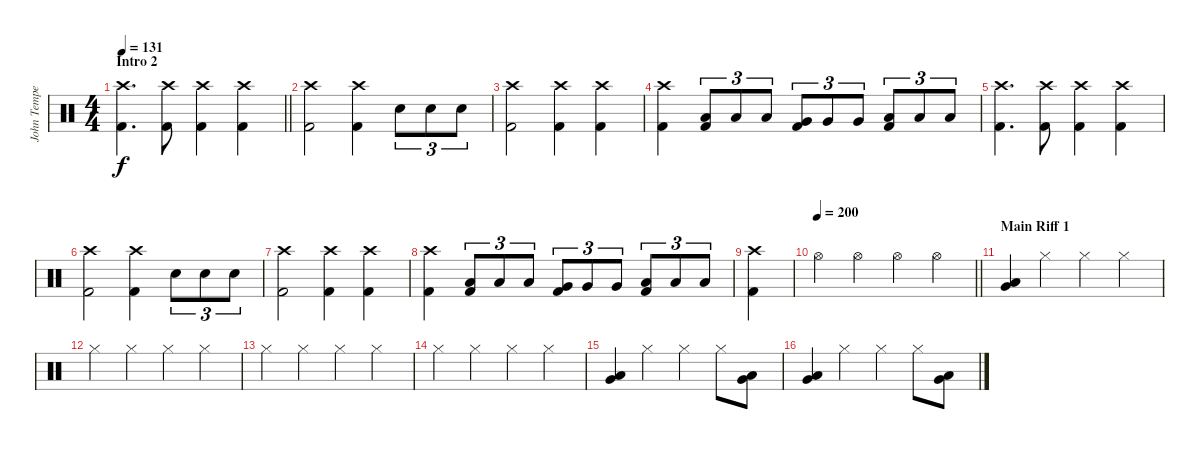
\track ("John Tempesta" "John Tempe") {instrument percussion}
\staff {score}
\articulation defaults
\ts (4 4)
\section ("" "Intro 2")
\tempo 131
\clef neutral
\barLineRight lightlight
\ks c
("Crash high (hit)" "Kick (hit) 2").4{d dy f} ("Crash high (hit)" "Kick (hit) 2").8 ("Crash high (hit)" "Kick (hit) 2").4 ("Crash high (hit)" "Kick (hit) 2").4 |
("Crash high (hit)" "Kick (hit) 2").2 ("Crash high (hit)" "Kick (hit) 2").4 "Electric Snare (hit)".8{tu (3 2)} "Electric Snare (hit)".8{tu (3 2)} "Electric Snare (hit)".8{tu (3 2)} |
("Crash high (hit)" "Kick (hit) 2").2 ("Crash high (hit)" "Kick (hit) 2").4 ("Crash high (hit)" "Kick (hit) 2").4 |
("Crash high (hit)" "Kick (hit) 2").4 ("Low Tom (hit)" "Kick (hit) 2").8{tu (3 2)} "Low Tom (hit)".8{tu (3 2)} "Low Tom (hit)".8{tu (3 2)} ("Very Low Tom (hit)" "Kick (hit) 2").8{tu (3 2)} "Very Low Tom (hit)".8{tu (3 2)} "Very Low Tom (hit)".8{tu (3 2)} ("Low Floor Tom (hit)" "Kick (hit) 2").8{tu (3 2)} "Low Floor Tom (hit)".8{tu (3 2)} "Low Floor Tom (hit)".8{tu (3 2)} |
("Crash high (hit)" "Kick (hit) 2").4{d} ("Crash high (hit)" "Kick (hit) 2").8 ("Crash high (hit)" "Kick (hit) 2").4 ("Crash high (hit)" "Kick (hit) 2").4 |
("Crash high (hit)" "Kick (hit) 2").2 ("Crash high (hit)" "Kick (hit) 2").4 "Electric Snare (hit)".8{tu (3 2)} "Electric Snare (hit)".8{tu (3 2)} "Electric Snare (hit)".8{tu (3 2)} |
("Crash high (hit)" "Kick (hit) 2").2 ("Crash high (hit)" "Kick (hit) 2").4 ("Crash high (hit)" "Kick (hit) 2").4 |
("Crash high (hit)" "Kick (hit) 2").4 ("Low Tom (hit)" "Kick (hit) 2").8{tu (3 2)} "Low Tom (hit)".8{tu (3 2)} "Low Tom (hit)".8{tu (3 2)} ("Very Low Tom (hit)" "Kick (hit) 2").8{tu (3 2)} "Very Low Tom (hit)".8{tu (3 2)} "Very Low Tom (hit)".8{tu (3 2)} ("Low Floor Tom (hit)" "Kick (hit) 2").8{tu (3 2)} "Low Floor Tom (hit)".8{tu (3 2)} "Low Floor Tom (hit)".8{tu (3 2)} |
("Crash high (hit)" "Kick (hit) 2").4 |
\tempo 200
\barLineRight lightlight "Hi-Hat (open)".4 "Hi-Hat (open)".4 "Hi-Hat (open)".4 "Hi-Hat (open)".4
|
\section ("" "Main Riff 1")
("Low Floor Tom (hit)" "Very Low Tom (hit)").4 "Hi-Hat (closed)".4 "Hi-Hat (closed)".4 "Hi-Hat (closed)".4 |
"Hi-Hat (closed)".4 "Hi-Hat (closed)".4 "Hi-Hat (closed)".4 "Hi-Hat (closed)".4 |
"Hi-Hat (closed)".4 "Hi-Hat (closed)".4 "Hi-Hat (closed)".4 "Hi-Hat (closed)".4 |
"Hi-Hat (closed)".4 "Hi-Hat (closed)".4 "Hi-Hat (closed)".4 "Hi-Hat (closed)".4 |
("Low Floor Tom (hit)" "Very Low Tom (hit)").4 "Hi-Hat (closed)".4 "Hi-Hat (closed)".4 "Hi-Hat (closed)".8 ("Low Floor Tom (hit)" "Very Low Tom (hit)").8 |
("Low Floor Tom (hit)" "Very Low Tom (hit)").4 "Hi-Hat (closed)".4 "Hi-Hat (closed)".4 "Hi-Hat (closed)".8 ("Low Floor Tom (hit)" "Very Low Tom (hit)").8
